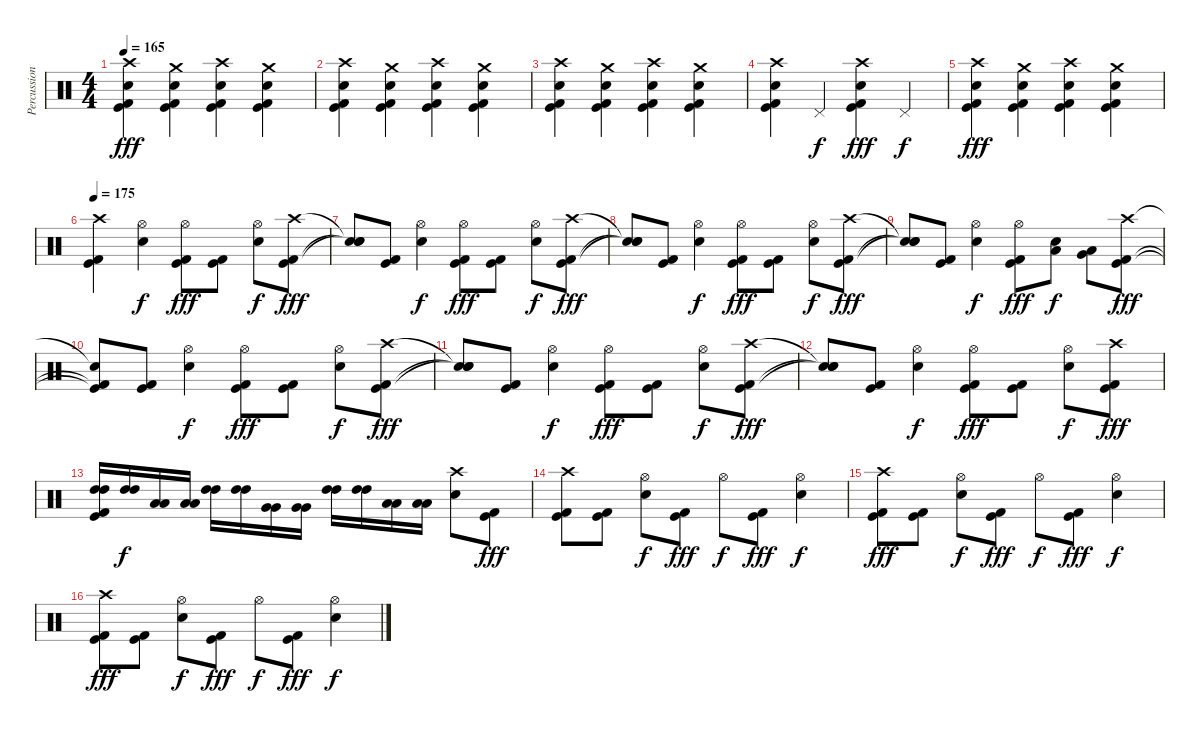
\track ("Percussion" "Percussion") {instrument percussion}
\staff {score}
\articulation defaults
\ts (4 4)
\tempo 165
\clef neutral
\ks c
("Crash high (hit)" "Snare (hit) 2" "Kick (hit)" "Kick (hit) 2").4{dy fff} ("Crash medium (hit)" "Snare (hit) 2" "Kick (hit)" "Kick (hit) 2").4 ("Crash high (hit)" "Snare (hit) 2" "Kick (hit)" "Kick (hit) 2").4 ("Crash medium (hit)" "Snare (hit) 2" "Kick (hit)" "Kick (hit) 2").4 |
("Crash high (hit)" "Snare (hit) 2" "Kick (hit)" "Kick (hit) 2").4 ("Crash medium (hit)" "Snare (hit) 2" "Kick (hit)" "Kick (hit) 2").4 ("Crash high (hit)" "Snare (hit) 2" "Kick (hit)" "Kick (hit) 2").4 ("Crash medium (hit)" "Snare (hit) 2" "Kick (hit)" "Kick (hit) 2").4 |
("Crash high (hit)" "Snare (hit) 2" "Kick (hit)" "Kick (hit) 2").4 ("Crash medium (hit)" "Snare (hit) 2" "Kick (hit)" "Kick (hit) 2").4 ("Crash high (hit)" "Snare (hit) 2" "Kick (hit)" "Kick (hit) 2").4 ("Crash medium (hit)" "Snare (hit) 2" "Kick (hit)" "Kick (hit) 2").4 |
("Crash high (hit)" "Snare (hit) 2" "Kick (hit)" "Kick (hit) 2").4 "Pedal Hi-Hat (hit)".4{dy f} ("Crash high (hit)" "Snare (hit) 2" "Kick (hit)" "Kick (hit) 2").4{dy fff} "Pedal Hi-Hat (hit)".4{dy f} |
("Crash high (hit)" "Snare (hit) 2" "Kick (hit)" "Kick (hit) 2").4{dy fff} ("Crash medium (hit)" "Snare (hit) 2" "Kick (hit)" "Kick (hit) 2").4 ("Crash high (hit)" "Snare (hit) 2" "Kick (hit)" "Kick (hit) 2").4 ("Crash medium (hit)" "Snare (hit) 2" "Kick (hit)" "Kick (hit) 2").4 |
\tempo 175
("Crash high (hit)" "Kick (hit)" "Kick (hit) 2").4 ("Hi-Hat (open)" "Snare (hit) 2").4{dy f} ("Hi-Hat (open)" "Kick (hit)" "Kick (hit) 2").8{dy fff} ("Kick (hit)" "Kick (hit) 2").8 ("Hi-Hat (open)" "Snare (hit) 2").8{dy f} ("Crash high (hit)" "Kick (hit)" "Kick (hit) 2").8{dy fff} |
("Snare (hit)"{t} "Snare (hit)"{t} "Snare (hit)"{t}).8 ("Kick (hit)" "Kick (hit) 2").8 ("Hi-Hat (open)" "Snare (hit) 2").4{dy f} ("Hi-Hat (open)" "Kick (hit)" "Kick (hit) 2").8{dy fff} ("Kick (hit)" "Kick (hit) 2").8 ("Hi-Hat (open)" "Snare (hit) 2").8{dy f} ("Crash high (hit)" "Kick (hit)" "Kick (hit) 2").8{dy fff} |
("Snare (hit)"{t} "Snare (hit)"{t} "Snare (hit)"{t}).8 ("Kick (hit)" "Kick (hit) 2").8 ("Hi-Hat (open)" "Snare (hit) 2").4{dy f} ("Hi-Hat (open)" "Kick (hit)" "Kick (hit) 2").8{dy fff} ("Kick (hit)" "Kick (hit) 2").8 ("Hi-Hat (open)" "Snare (hit) 2").8{dy f} ("Crash high (hit)" "Kick (hit)" "Kick (hit) 2").8{dy fff} |
("Snare (hit)"{t} "Snare (hit)"{t} "Snare (hit)"{t}).8 ("Kick (hit)" "Kick (hit) 2").8 ("Hi-Hat (open)" "Snare (hit) 2").4{dy f} ("Hi-Hat (open)" "Kick (hit)" "Kick (hit) 2").8{dy fff} ("Low Tom (hit)" "Snare (hit) 2").8{dy f} ("Very Low Tom (hit)" "Low Tom (hit)").8 ("Crash high (hit)" "Kick (hit)" "Kick (hit) 2").8{dy fff} |
("Snare (hit)"{t} "Kick (hit)"{t} "Kick (hit) 2"{t}).8 ("Kick (hit)" "Kick (hit) 2").8 ("Hi-Hat (open)" "Snare (hit) 2").4{dy f} ("Hi-Hat (open)" "Kick (hit)" "Kick (hit) 2").8{dy fff} ("Kick (hit)" "Kick (hit) 2").8 ("Hi-Hat (open)" "Snare (hit) 2").8{dy f} ("Crash high (hit)" "Kick (hit)" "Kick (hit) 2").8{dy fff} |
("Snare (hit)"{t} "Snare (hit)"{t} "Snare (hit)"{t}).8 ("Kick (hit)" "Kick (hit) 2").8 ("Hi-Hat (open)" "Snare (hit) 2").4{dy f} ("Hi-Hat (open)" "Kick (hit)" "Kick (hit) 2").8{dy fff} ("Kick (hit)" "Kick (hit) 2").8 ("Hi-Hat (open)" "Snare (hit) 2").8{dy f} ("Crash high (hit)" "Kick (hit)" "Kick (hit) 2").8{dy fff} |
("Snare (hit)"{t} "Snare (hit)"{t} "Snare (hit)"{t}).8 ("Kick (hit)" "Kick (hit) 2").8 ("Hi-Hat (open)" "Snare (hit) 2").4{dy f} ("Hi-Hat (open)" "Kick (hit)" "Kick (hit) 2").8{dy fff} ("Kick (hit)" "Kick (hit) 2").8 ("Hi-Hat (open)" "Snare (hit) 2").8{dy f} ("Crash high (hit)" "Kick (hit)" "Kick (hit) 2").8{dy fff} |
("High Tom (hit)" "High Tom (hit)" "Kick (hit)" "Kick (hit) 2").16 ("High Tom (hit)" "High Tom (hit)").16{dy f} ("Low Tom (hit)" "Low Tom (hit)").16 ("Low Tom (hit)" "Low Tom (hit)").16 ("High Tom (hit)" "High Tom (hit)").16 ("High Tom (hit)" "High Tom (hit)").16 ("Very Low Tom (hit)" "Very Low Tom (hit)").16 ("Very Low Tom (hit)" "Very Low Tom (hit)").16 ("High Tom (hit)" "High Tom (hit)").16 ("High Tom (hit)" "High Tom (hit)").16 ("Low Floor Tom (hit)" "Low Floor Tom (hit)").16 ("Low Floor Tom (hit)" "Low Floor Tom (hit)").16 ("Crash high (hit)" "Snare (hit) 2").8 ("Kick (hit)" "Kick (hit) 2").8{dy fff} |
("Crash high (hit)" "Kick (hit)" "Kick (hit) 2").8 ("Kick (hit)" "Kick (hit) 2").8 ("Hi-Hat (open)" "Electric Snare (hit)").8{dy f} ("Kick (hit)" "Kick (hit) 2").8{dy fff} "Hi-Hat (open)".8{dy f} ("Kick (hit)" "Kick (hit) 2").8{dy fff} ("Hi-Hat (open)" "Electric Snare (hit)").4{dy f} |
("Crash high (hit)" "Kick (hit)" "Kick (hit) 2").8{dy fff} ("Kick (hit)" "Kick (hit) 2").8 ("Hi-Hat (open)" "Electric Snare (hit)").8{dy f} ("Kick (hit)" "Kick (hit) 2").8{dy fff} "Hi-Hat (open)".8{dy f} ("Kick (hit)" "Kick (hit) 2").8{dy fff} ("Hi-Hat (open)" "Electric Snare (hit)").4{dy f} |
("Crash high (hit)" "Kick (hit)" "Kick (hit) 2").8{dy fff} ("Kick (hit)" "Kick (hit) 2").8 ("Hi-Hat (open)" "Electric Snare (hit)").8{dy f} ("Kick (hit)" "Kick (hit) 2").8{dy fff} "Hi-Hat (open)".8{dy f} ("Kick (hit)" "Kick (hit) 2").8{dy fff} ("Hi-Hat (open)" "Electric Snare (hit)").4{dy f}
